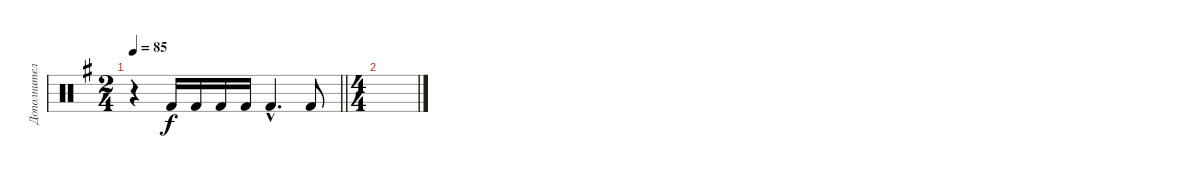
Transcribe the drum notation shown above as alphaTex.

\track ("Дополнительно" "Дополнител") {instrument percussion}
\staff {score}
\articulation defaults
\ts (2 4)
\tempo 85
\clef neutral
\barLineRight lightlight
\ks eminor
r.4{dy f} "Kick (hit) 2".16 "Kick (hit) 2".16 "Kick (hit) 2".16 "Kick (hit) 2".16 "Kick (hit) 2"{hac}.4{d} "Kick (hit) 2".8 |
\ts (4 4)
